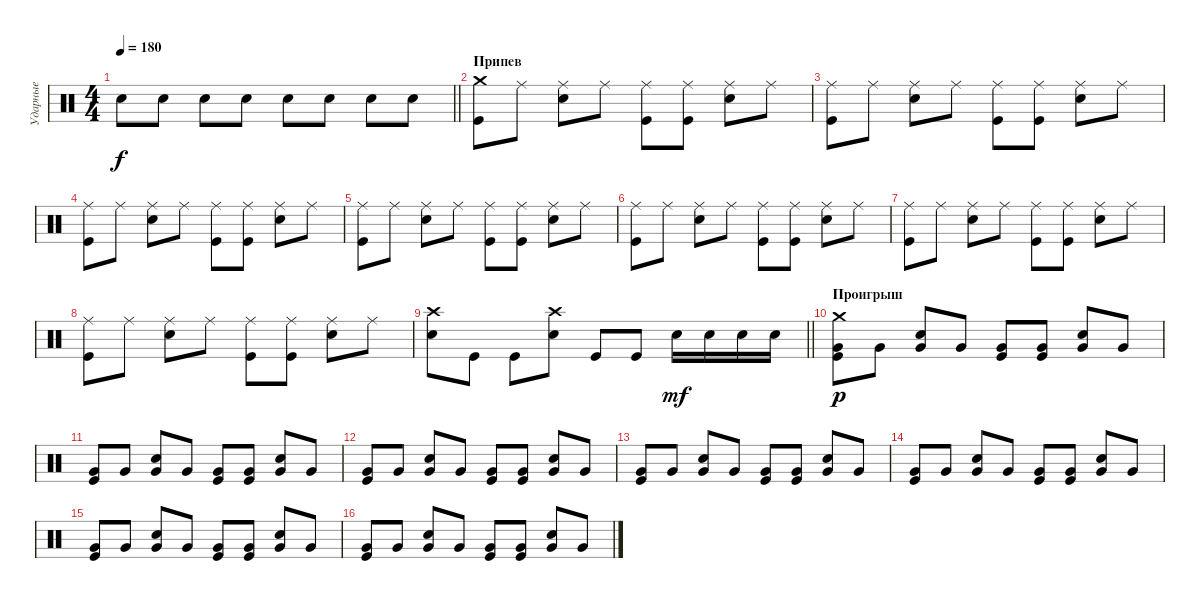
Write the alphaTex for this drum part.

\track ("Ударные" "Ударные") {instrument percussion}
\staff {score}
\articulation defaults
\ts (4 4)
\tempo 180
\clef neutral
\barLineRight lightlight
\ks c "Electric Snare (hit)".8{dy f} "Electric Snare (hit)".8 "Electric Snare (hit)".8 "Electric Snare (hit)".8 "Electric Snare (hit)".8 "Electric Snare (hit)".8 "Electric Snare (hit)".8 "Electric Snare (hit)".8
|
\section ("" "Припев")
("Crash medium (hit)" "Kick (hit)").8 "Ride (middle)".8 ("Ride (middle)" "Electric Snare (hit)").8 "Ride (middle)".8 ("Ride (middle)" "Kick (hit)").8 ("Ride (middle)" "Kick (hit)").8 ("Ride (middle)" "Electric Snare (hit)").8 "Ride (middle)".8 |
("Ride (middle)" "Kick (hit)").8 "Ride (middle)".8 ("Ride (middle)" "Electric Snare (hit)").8 "Ride (middle)".8 ("Ride (middle)" "Kick (hit)").8 ("Ride (middle)" "Kick (hit)").8 ("Ride (middle)" "Electric Snare (hit)").8 "Ride (middle)".8 |
("Ride (middle)" "Kick (hit)").8 "Ride (middle)".8 ("Ride (middle)" "Electric Snare (hit)").8 "Ride (middle)".8 ("Ride (middle)" "Kick (hit)").8 ("Ride (middle)" "Kick (hit)").8 ("Ride (middle)" "Electric Snare (hit)").8 "Ride (middle)".8 |
("Ride (middle)" "Kick (hit)").8 "Ride (middle)".8 ("Ride (middle)" "Electric Snare (hit)").8 "Ride (middle)".8 ("Ride (middle)" "Kick (hit)").8 ("Ride (middle)" "Kick (hit)").8 ("Ride (middle)" "Electric Snare (hit)").8 "Ride (middle)".8 |
("Ride (middle)" "Kick (hit)").8 "Ride (middle)".8 ("Ride (middle)" "Electric Snare (hit)").8 "Ride (middle)".8 ("Ride (middle)" "Kick (hit)").8 ("Ride (middle)" "Kick (hit)").8 ("Ride (middle)" "Electric Snare (hit)").8 "Ride (middle)".8 |
("Ride (middle)" "Kick (hit)").8 "Ride (middle)".8 ("Ride (middle)" "Electric Snare (hit)").8 "Ride (middle)".8 ("Ride (middle)" "Kick (hit)").8 ("Ride (middle)" "Kick (hit)").8 ("Ride (middle)" "Electric Snare (hit)").8 "Ride (middle)".8 |
("Ride (middle)" "Kick (hit)").8 "Ride (middle)".8 ("Ride (middle)" "Electric Snare (hit)").8 "Ride (middle)".8 ("Ride (middle)" "Kick (hit)").8 ("Ride (middle)" "Kick (hit)").8 ("Ride (middle)" "Electric Snare (hit)").8 "Ride (middle)".8 |
\barLineRight lightlight
("Electric Snare (hit)" "Crash high (hit)").8 "Kick (hit)".8 "Kick (hit)".8 ("Electric Snare (hit)" "Crash high (hit)").8 "Kick (hit)".8 "Kick (hit)".8 "Electric Snare (hit)".16{dy mf} "Electric Snare (hit)".16 "Electric Snare (hit)".16 "Electric Snare (hit)".16 |
\section ("" "Проигрыш")
("Crash medium (hit)" "Very Low Tom (hit)" "Kick (hit)").8{dy p} "Very Low Tom (hit)".8 ("Very Low Tom (hit)" "Electric Snare (hit)").8 "Very Low Tom (hit)".8 ("Very Low Tom (hit)" "Kick (hit)").8 ("Very Low Tom (hit)" "Kick (hit)").8 ("Very Low Tom (hit)" "Electric Snare (hit)").8 "Very Low Tom (hit)".8 |
("Very Low Tom (hit)" "Kick (hit)").8 "Very Low Tom (hit)".8 ("Very Low Tom (hit)" "Electric Snare (hit)").8 "Very Low Tom (hit)".8 ("Very Low Tom (hit)" "Kick (hit)").8 ("Very Low Tom (hit)" "Kick (hit)").8 ("Very Low Tom (hit)" "Electric Snare (hit)").8 "Very Low Tom (hit)".8 |
("Very Low Tom (hit)" "Kick (hit)").8 "Very Low Tom (hit)".8 ("Very Low Tom (hit)" "Electric Snare (hit)").8 "Very Low Tom (hit)".8 ("Very Low Tom (hit)" "Kick (hit)").8 ("Very Low Tom (hit)" "Kick (hit)").8 ("Very Low Tom (hit)" "Electric Snare (hit)").8 "Very Low Tom (hit)".8 |
("Very Low Tom (hit)" "Kick (hit)").8 "Very Low Tom (hit)".8 ("Very Low Tom (hit)" "Electric Snare (hit)").8 "Very Low Tom (hit)".8 ("Very Low Tom (hit)" "Kick (hit)").8 ("Very Low Tom (hit)" "Kick (hit)").8 ("Very Low Tom (hit)" "Electric Snare (hit)").8 "Very Low Tom (hit)".8 |
("Very Low Tom (hit)" "Kick (hit)").8 "Very Low Tom (hit)".8 ("Very Low Tom (hit)" "Electric Snare (hit)").8 "Very Low Tom (hit)".8 ("Very Low Tom (hit)" "Kick (hit)").8 ("Very Low Tom (hit)" "Kick (hit)").8 ("Very Low Tom (hit)" "Electric Snare (hit)").8 "Very Low Tom (hit)".8 |
("Very Low Tom (hit)" "Kick (hit)").8 "Very Low Tom (hit)".8 ("Very Low Tom (hit)" "Electric Snare (hit)").8 "Very Low Tom (hit)".8 ("Very Low Tom (hit)" "Kick (hit)").8 ("Very Low Tom (hit)" "Kick (hit)").8 ("Very Low Tom (hit)" "Electric Snare (hit)").8 "Very Low Tom (hit)".8 |
("Very Low Tom (hit)" "Kick (hit)").8 "Very Low Tom (hit)".8 ("Very Low Tom (hit)" "Electric Snare (hit)").8 "Very Low Tom (hit)".8 ("Very Low Tom (hit)" "Kick (hit)").8 ("Very Low Tom (hit)" "Kick (hit)").8 ("Very Low Tom (hit)" "Electric Snare (hit)").8 "Very Low Tom (hit)".8
